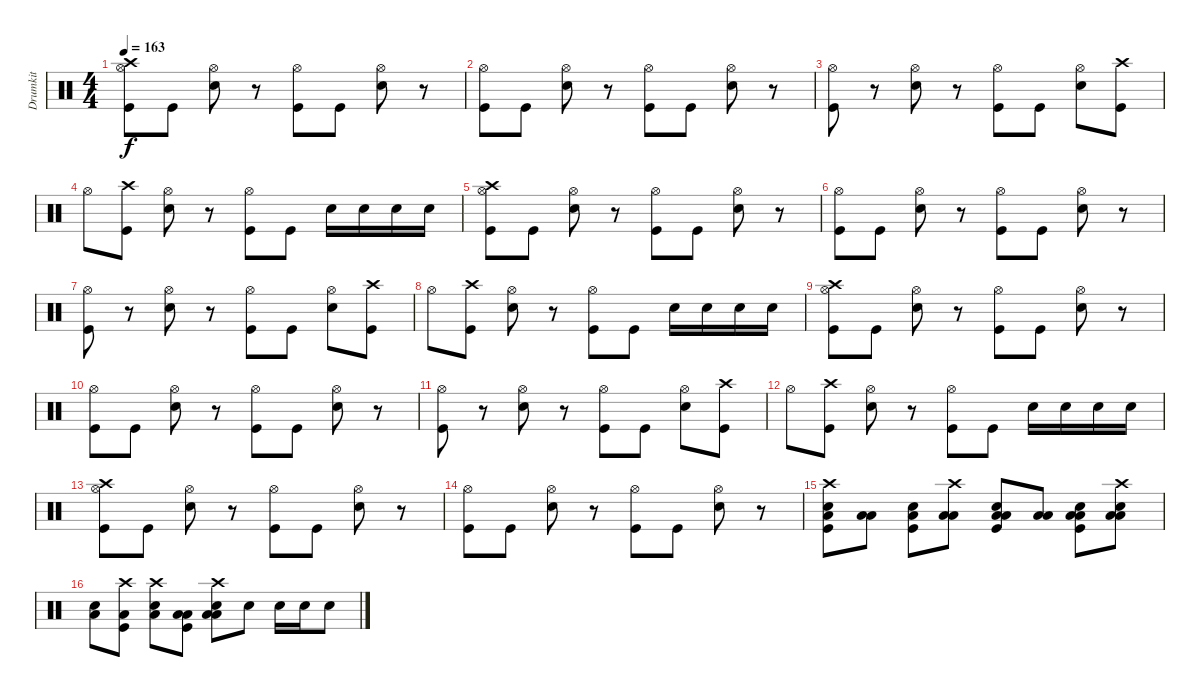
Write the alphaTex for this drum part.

\track ("Drumkit" "Drumkit") {instrument percussion}
\staff {score}
\articulation defaults
\ts (4 4)
\tempo 163
\clef neutral
\ks c
("Crash high (hit)" "Kick (hit)" "Hi-Hat (open)").8{dy f} "Kick (hit)".8 ("Snare (hit) 2" "Hi-Hat (open)").8 r.8 ("Kick (hit)" "Hi-Hat (open)").8 "Kick (hit)".8 ("Snare (hit) 2" "Hi-Hat (open)").8 r.8 |
("Kick (hit)" "Hi-Hat (open)").8 "Kick (hit)".8 ("Snare (hit) 2" "Hi-Hat (open)").8 r.8 ("Kick (hit)" "Hi-Hat (open)").8 "Kick (hit)".8 ("Snare (hit) 2" "Hi-Hat (open)").8 r.8 |
("Kick (hit)" "Hi-Hat (open)").8 r.8 ("Snare (hit) 2" "Hi-Hat (open)").8 r.8 ("Kick (hit)" "Hi-Hat (open)").8 "Kick (hit)".8 ("Snare (hit) 2" "Hi-Hat (open)").8 ("Kick (hit)" "Crash high (hit)").8 |
"Hi-Hat (open)".8 ("Kick (hit)" "Crash high (hit)").8 ("Snare (hit) 2" "Hi-Hat (open)").8 r.8 ("Kick (hit)" "Hi-Hat (open)").8 "Kick (hit)".8 "Snare (hit) 2".16 "Snare (hit) 2".16 "Snare (hit) 2".16 "Snare (hit) 2".16 |
("Crash high (hit)" "Kick (hit)" "Hi-Hat (open)").8 "Kick (hit)".8 ("Snare (hit) 2" "Hi-Hat (open)").8 r.8 ("Kick (hit)" "Hi-Hat (open)").8 "Kick (hit)".8 ("Snare (hit) 2" "Hi-Hat (open)").8 r.8 |
("Kick (hit)" "Hi-Hat (open)").8 "Kick (hit)".8 ("Snare (hit) 2" "Hi-Hat (open)").8 r.8 ("Kick (hit)" "Hi-Hat (open)").8 "Kick (hit)".8 ("Snare (hit) 2" "Hi-Hat (open)").8 r.8 |
("Kick (hit)" "Hi-Hat (open)").8 r.8 ("Snare (hit) 2" "Hi-Hat (open)").8 r.8 ("Kick (hit)" "Hi-Hat (open)").8 "Kick (hit)".8 ("Snare (hit) 2" "Hi-Hat (open)").8 ("Kick (hit)" "Crash high (hit)").8 |
"Hi-Hat (open)".8 ("Kick (hit)" "Crash high (hit)").8 ("Snare (hit) 2" "Hi-Hat (open)").8 r.8 ("Kick (hit)" "Hi-Hat (open)").8 "Kick (hit)".8 "Snare (hit) 2".16 "Snare (hit) 2".16 "Snare (hit) 2".16 "Snare (hit) 2".16 |
("Crash high (hit)" "Kick (hit)" "Hi-Hat (open)").8 "Kick (hit)".8 ("Snare (hit) 2" "Hi-Hat (open)").8 r.8 ("Kick (hit)" "Hi-Hat (open)").8 "Kick (hit)".8 ("Snare (hit) 2" "Hi-Hat (open)").8 r.8 |
("Kick (hit)" "Hi-Hat (open)").8 "Kick (hit)".8 ("Snare (hit) 2" "Hi-Hat (open)").8 r.8 ("Kick (hit)" "Hi-Hat (open)").8 "Kick (hit)".8 ("Snare (hit) 2" "Hi-Hat (open)").8 r.8 |
("Kick (hit)" "Hi-Hat (open)").8 r.8 ("Snare (hit) 2" "Hi-Hat (open)").8 r.8 ("Kick (hit)" "Hi-Hat (open)").8 "Kick (hit)".8 ("Snare (hit) 2" "Hi-Hat (open)").8 ("Kick (hit)" "Crash high (hit)").8 |
"Hi-Hat (open)".8 ("Kick (hit)" "Crash high (hit)").8 ("Snare (hit) 2" "Hi-Hat (open)").8 r.8 ("Kick (hit)" "Hi-Hat (open)").8 "Kick (hit)".8 "Snare (hit) 2".16 "Snare (hit) 2".16 "Snare (hit) 2".16 "Snare (hit) 2".16 |
("Crash high (hit)" "Kick (hit)" "Hi-Hat (open)").8 "Kick (hit)".8 ("Snare (hit) 2" "Hi-Hat (open)").8 r.8 ("Kick (hit)" "Hi-Hat (open)").8 "Kick (hit)".8 ("Snare (hit) 2" "Hi-Hat (open)").8 r.8 |
("Kick (hit)" "Hi-Hat (open)").8 "Kick (hit)".8 ("Snare (hit) 2" "Hi-Hat (open)").8 r.8 ("Kick (hit)" "Hi-Hat (open)").8 "Kick (hit)".8 ("Snare (hit) 2" "Hi-Hat (open)").8 r.8 |
("Crash high (hit)" "Snare (hit) 2" "Low Floor Tom (hit)" "Kick (hit)").8 ("Low Tom (hit)" "Low Floor Tom (hit)").8 ("Snare (hit) 2" "Low Floor Tom (hit)" "Kick (hit)").8 ("Crash high (hit)" "Low Tom (hit)" "Low Floor Tom (hit)").8 ("Snare (hit) 2" "Low Tom (hit)" "Low Floor Tom (hit)" "Kick (hit)").8 ("Low Tom (hit)" "Low Floor Tom (hit)").8 ("Snare (hit) 2" "Low Tom (hit)" "Low Floor Tom (hit)" "Kick (hit)").8 ("Crash high (hit)" "Snare (hit) 2" "Low Tom (hit)" "Low Floor Tom (hit)").8 |
("Snare (hit) 2" "Low Floor Tom (hit)").8 ("Crash high (hit)" "Low Floor Tom (hit)" "Kick (hit)").8 ("Crash high (hit)" "Snare (hit) 2" "Low Floor Tom (hit)").8 ("Low Tom (hit)" "Low Floor Tom (hit)" "Kick (hit)").8 ("Crash high (hit)" "Snare (hit) 2" "Low Tom (hit)" "Low Floor Tom (hit)").8 "Snare (hit) 2".8 "Snare (hit) 2".16 "Snare (hit) 2".16 "Snare (hit) 2".8
